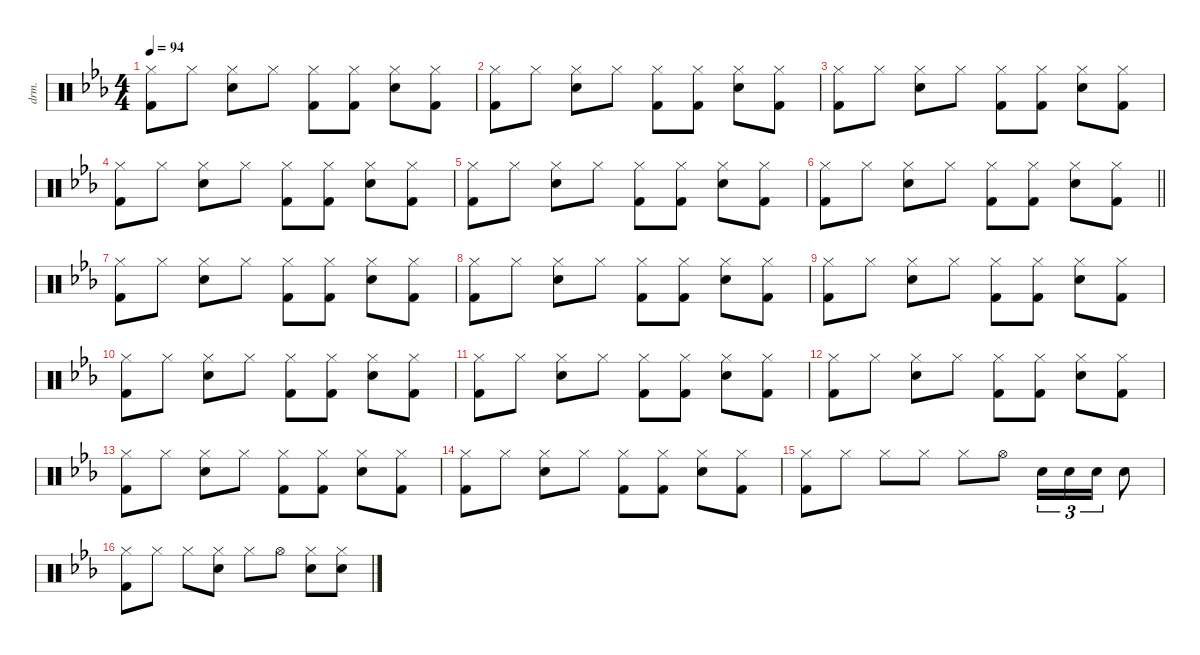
\defaultSystemsLayout 4
\hideDynamics
\bracketExtendMode nobrackets
\otherSystemsTrackNameOrientation horizontal
\track ("Percussion" "drm.") {instrument percussion}
\staff {score}
\articulation defaults
\ts (4 4)
\tempo 94
\clef neutral
\ks eb
("Hi-Hat (closed)"{acc forcenatural} "Kick (hit) 2"{acc forcenatural}).8{dy f} "Hi-Hat (closed)"{acc forcenatural}.8 ("Hi-Hat (closed)"{acc forcenatural} "Snare (hit) 2"{acc forcenatural}).8 "Hi-Hat (closed)"{acc forcenatural}.8 ("Hi-Hat (closed)"{acc forcenatural} "Kick (hit) 2"{acc forcenatural}).8 ("Hi-Hat (closed)"{acc forcenatural} "Kick (hit) 2"{acc forcenatural}).8 ("Hi-Hat (closed)"{acc forcenatural} "Snare (hit) 2"{acc forcenatural}).8 ("Hi-Hat (closed)"{acc forcenatural} "Kick (hit) 2"{acc forcenatural}).8 |
("Hi-Hat (closed)"{acc forcenatural} "Kick (hit) 2"{acc forcenatural}).8 "Hi-Hat (closed)"{acc forcenatural}.8 ("Hi-Hat (closed)"{acc forcenatural} "Snare (hit) 2"{acc forcenatural}).8 "Hi-Hat (closed)"{acc forcenatural}.8 ("Hi-Hat (closed)"{acc forcenatural} "Kick (hit) 2"{acc forcenatural}).8 ("Hi-Hat (closed)"{acc forcenatural} "Kick (hit) 2"{acc forcenatural}).8 ("Hi-Hat (closed)"{acc forcenatural} "Snare (hit) 2"{acc forcenatural}).8 ("Hi-Hat (closed)"{acc forcenatural} "Kick (hit) 2"{acc forcenatural}).8 |
("Hi-Hat (closed)"{acc forcenatural} "Kick (hit) 2"{acc forcenatural}).8 "Hi-Hat (closed)"{acc forcenatural}.8 ("Hi-Hat (closed)"{acc forcenatural} "Snare (hit) 2"{acc forcenatural}).8 "Hi-Hat (closed)"{acc forcenatural}.8 ("Hi-Hat (closed)"{acc forcenatural} "Kick (hit) 2"{acc forcenatural}).8 ("Hi-Hat (closed)"{acc forcenatural} "Kick (hit) 2"{acc forcenatural}).8 ("Hi-Hat (closed)"{acc forcenatural} "Snare (hit) 2"{acc forcenatural}).8 ("Hi-Hat (closed)"{acc forcenatural} "Kick (hit) 2"{acc forcenatural}).8 |
("Hi-Hat (closed)"{acc forcenatural} "Kick (hit) 2"{acc forcenatural}).8 "Hi-Hat (closed)"{acc forcenatural}.8 ("Hi-Hat (closed)"{acc forcenatural} "Snare (hit) 2"{acc forcenatural}).8 "Hi-Hat (closed)"{acc forcenatural}.8 ("Hi-Hat (closed)"{acc forcenatural} "Kick (hit) 2"{acc forcenatural}).8 ("Hi-Hat (closed)"{acc forcenatural} "Kick (hit) 2"{acc forcenatural}).8 ("Hi-Hat (closed)"{acc forcenatural} "Snare (hit) 2"{acc forcenatural}).8 ("Hi-Hat (closed)"{acc forcenatural} "Kick (hit) 2"{acc forcenatural}).8 |
("Hi-Hat (closed)"{acc forcenatural} "Kick (hit) 2"{acc forcenatural}).8 "Hi-Hat (closed)"{acc forcenatural}.8 ("Hi-Hat (closed)"{acc forcenatural} "Snare (hit) 2"{acc forcenatural}).8 "Hi-Hat (closed)"{acc forcenatural}.8 ("Hi-Hat (closed)"{acc forcenatural} "Kick (hit) 2"{acc forcenatural}).8 ("Hi-Hat (closed)"{acc forcenatural} "Kick (hit) 2"{acc forcenatural}).8 ("Hi-Hat (closed)"{acc forcenatural} "Snare (hit) 2"{acc forcenatural}).8 ("Hi-Hat (closed)"{acc forcenatural} "Kick (hit) 2"{acc forcenatural}).8 |
\barLineRight lightlight
("Hi-Hat (closed)"{acc forcenatural} "Kick (hit) 2"{acc forcenatural}).8 "Hi-Hat (closed)"{acc forcenatural}.8 ("Hi-Hat (closed)"{acc forcenatural} "Snare (hit) 2"{acc forcenatural}).8 "Hi-Hat (closed)"{acc forcenatural}.8 ("Hi-Hat (closed)"{acc forcenatural} "Kick (hit) 2"{acc forcenatural}).8 ("Hi-Hat (closed)"{acc forcenatural} "Kick (hit) 2"{acc forcenatural}).8 ("Hi-Hat (closed)"{acc forcenatural} "Snare (hit) 2"{acc forcenatural}).8 ("Hi-Hat (closed)"{acc forcenatural} "Kick (hit) 2"{acc forcenatural}).8 |
("Hi-Hat (closed)"{acc forcenatural} "Kick (hit) 2"{acc forcenatural}).8 "Hi-Hat (closed)"{acc forcenatural}.8 ("Hi-Hat (closed)"{acc forcenatural} "Snare (hit) 2"{acc forcenatural}).8 "Hi-Hat (closed)"{acc forcenatural}.8 ("Hi-Hat (closed)"{acc forcenatural} "Kick (hit) 2"{acc forcenatural}).8 ("Hi-Hat (closed)"{acc forcenatural} "Kick (hit) 2"{acc forcenatural}).8 ("Hi-Hat (closed)"{acc forcenatural} "Snare (hit) 2"{acc forcenatural}).8 ("Hi-Hat (closed)"{acc forcenatural} "Kick (hit) 2"{acc forcenatural}).8 |
("Hi-Hat (closed)"{acc forcenatural} "Kick (hit) 2"{acc forcenatural}).8 "Hi-Hat (closed)"{acc forcenatural}.8 ("Hi-Hat (closed)"{acc forcenatural} "Snare (hit) 2"{acc forcenatural}).8 "Hi-Hat (closed)"{acc forcenatural}.8 ("Hi-Hat (closed)"{acc forcenatural} "Kick (hit) 2"{acc forcenatural}).8 ("Hi-Hat (closed)"{acc forcenatural} "Kick (hit) 2"{acc forcenatural}).8 ("Hi-Hat (closed)"{acc forcenatural} "Snare (hit) 2"{acc forcenatural}).8 ("Hi-Hat (closed)"{acc forcenatural} "Kick (hit) 2"{acc forcenatural}).8 |
("Hi-Hat (closed)"{acc forcenatural} "Kick (hit) 2"{acc forcenatural}).8 "Hi-Hat (closed)"{acc forcenatural}.8 ("Hi-Hat (closed)"{acc forcenatural} "Snare (hit) 2"{acc forcenatural}).8 "Hi-Hat (closed)"{acc forcenatural}.8 ("Hi-Hat (closed)"{acc forcenatural} "Kick (hit) 2"{acc forcenatural}).8 ("Hi-Hat (closed)"{acc forcenatural} "Kick (hit) 2"{acc forcenatural}).8 ("Hi-Hat (closed)"{acc forcenatural} "Snare (hit) 2"{acc forcenatural}).8 ("Hi-Hat (closed)"{acc forcenatural} "Kick (hit) 2"{acc forcenatural}).8 |
("Hi-Hat (closed)"{acc forcenatural} "Kick (hit) 2"{acc forcenatural}).8 "Hi-Hat (closed)"{acc forcenatural}.8 ("Hi-Hat (closed)"{acc forcenatural} "Snare (hit) 2"{acc forcenatural}).8 "Hi-Hat (closed)"{acc forcenatural}.8 ("Hi-Hat (closed)"{acc forcenatural} "Kick (hit) 2"{acc forcenatural}).8 ("Hi-Hat (closed)"{acc forcenatural} "Kick (hit) 2"{acc forcenatural}).8 ("Hi-Hat (closed)"{acc forcenatural} "Snare (hit) 2"{acc forcenatural}).8 ("Hi-Hat (closed)"{acc forcenatural} "Kick (hit) 2"{acc forcenatural}).8 |
("Hi-Hat (closed)"{acc forcenatural} "Kick (hit) 2"{acc forcenatural}).8 "Hi-Hat (closed)"{acc forcenatural}.8 ("Hi-Hat (closed)"{acc forcenatural} "Snare (hit) 2"{acc forcenatural}).8 "Hi-Hat (closed)"{acc forcenatural}.8 ("Hi-Hat (closed)"{acc forcenatural} "Kick (hit) 2"{acc forcenatural}).8 ("Hi-Hat (closed)"{acc forcenatural} "Kick (hit) 2"{acc forcenatural}).8 ("Hi-Hat (closed)"{acc forcenatural} "Snare (hit) 2"{acc forcenatural}).8 ("Hi-Hat (closed)"{acc forcenatural} "Kick (hit) 2"{acc forcenatural}).8 |
("Hi-Hat (closed)"{acc forcenatural} "Kick (hit) 2"{acc forcenatural}).8 "Hi-Hat (closed)"{acc forcenatural}.8 ("Hi-Hat (closed)"{acc forcenatural} "Snare (hit) 2"{acc forcenatural}).8 "Hi-Hat (closed)"{acc forcenatural}.8 ("Hi-Hat (closed)"{acc forcenatural} "Kick (hit) 2"{acc forcenatural}).8 ("Hi-Hat (closed)"{acc forcenatural} "Kick (hit) 2"{acc forcenatural}).8 ("Hi-Hat (closed)"{acc forcenatural} "Snare (hit) 2"{acc forcenatural}).8 ("Hi-Hat (closed)"{acc forcenatural} "Kick (hit) 2"{acc forcenatural}).8 |
("Hi-Hat (closed)"{acc forcenatural} "Kick (hit) 2"{acc forcenatural}).8 "Hi-Hat (closed)"{acc forcenatural}.8 ("Hi-Hat (closed)"{acc forcenatural} "Snare (hit) 2"{acc forcenatural}).8 "Hi-Hat (closed)"{acc forcenatural}.8 ("Hi-Hat (closed)"{acc forcenatural} "Kick (hit) 2"{acc forcenatural}).8 ("Hi-Hat (closed)"{acc forcenatural} "Kick (hit) 2"{acc forcenatural}).8 ("Hi-Hat (closed)"{acc forcenatural} "Snare (hit) 2"{acc forcenatural}).8 ("Hi-Hat (closed)"{acc forcenatural} "Kick (hit) 2"{acc forcenatural}).8 |
("Hi-Hat (closed)"{acc forcenatural} "Kick (hit) 2"{acc forcenatural}).8 "Hi-Hat (closed)"{acc forcenatural}.8 ("Hi-Hat (closed)"{acc forcenatural} "Snare (hit) 2"{acc forcenatural}).8 "Hi-Hat (closed)"{acc forcenatural}.8 ("Hi-Hat (closed)"{acc forcenatural} "Kick (hit) 2"{acc forcenatural}).8 ("Hi-Hat (closed)"{acc forcenatural} "Kick (hit) 2"{acc forcenatural}).8 ("Hi-Hat (closed)"{acc forcenatural} "Snare (hit) 2"{acc forcenatural}).8 ("Hi-Hat (closed)"{acc forcenatural} "Kick (hit) 2"{acc forcenatural}).8 |
("Hi-Hat (closed)"{acc forcenatural} "Kick (hit) 2"{acc forcenatural}).8 "Hi-Hat (closed)"{acc forcenatural}.8 "Hi-Hat (closed)"{acc forcenatural}.8 "Hi-Hat (closed)"{acc forcenatural}.8 "Hi-Hat (closed)"{acc forcenatural}.8 "Hi-Hat (open)"{acc forcenatural}.8 "Snare (hit) 2"{acc forcenatural}.16{tu (3 2)} "Snare (hit) 2"{acc forcenatural}.16{tu (3 2)} "Snare (hit) 2"{acc forcenatural}.16{tu (3 2)} "Snare (hit) 2"{acc forcenatural}.8 |
("Hi-Hat (closed)"{acc forcenatural} "Kick (hit) 2"{acc forcenatural}).8 "Hi-Hat (closed)"{acc forcenatural}.8 "Hi-Hat (closed)"{acc forcenatural}.8 ("Hi-Hat (closed)"{acc forcenatural} "Snare (hit) 2"{acc forcenatural}).8 "Hi-Hat (closed)"{acc forcenatural}.8 "Hi-Hat (open)"{acc forcenatural}.8 ("Hi-Hat (closed)"{acc forcenatural} "Snare (hit) 2"{acc forcenatural}).8 ("Hi-Hat (closed)"{acc forcenatural} "Snare (hit) 2"{acc forcenatural}).8
